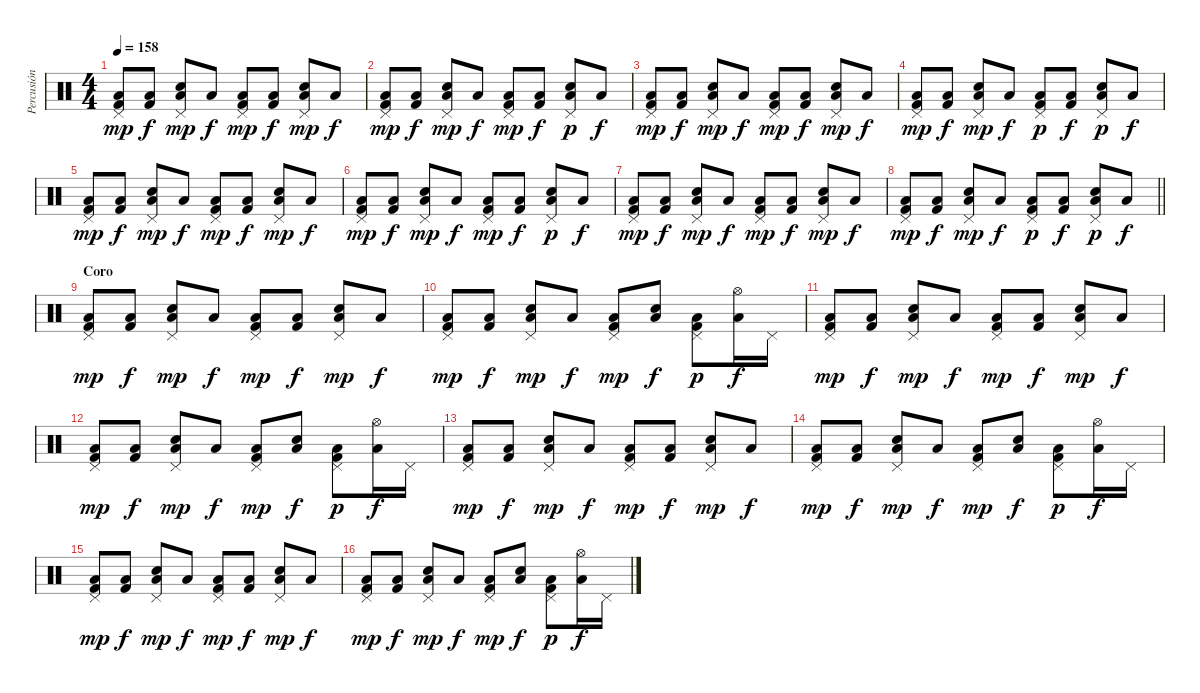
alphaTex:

\track ("Percusión" "Percusión") {instrument percussion}
\staff {score}
\articulation defaults
\ts (4 4)
\tempo 158
\clef neutral
\ks c
("Pedal Hi-Hat (hit)" "Low Floor Tom (hit)" "Kick (hit) 2").8{dy mp} ("Low Floor Tom (hit)" "Kick (hit) 2").8{dy f} ("Pedal Hi-Hat (hit)" "Low Floor Tom (hit)" "Electric Snare (hit)").8{dy mp} "Low Floor Tom (hit)".8{dy f} ("Pedal Hi-Hat (hit)" "Low Floor Tom (hit)" "Kick (hit) 2").8{dy mp} ("Low Floor Tom (hit)" "Kick (hit) 2").8{dy f} ("Pedal Hi-Hat (hit)" "Low Floor Tom (hit)" "Electric Snare (hit)").8{dy mp} "Low Floor Tom (hit)".8{dy f} |
("Pedal Hi-Hat (hit)" "Low Floor Tom (hit)" "Kick (hit) 2").8{dy mp} ("Low Floor Tom (hit)" "Kick (hit) 2").8{dy f} ("Pedal Hi-Hat (hit)" "Low Floor Tom (hit)" "Electric Snare (hit)").8{dy mp} "Low Floor Tom (hit)".8{dy f} ("Pedal Hi-Hat (hit)" "Low Floor Tom (hit)" "Kick (hit) 2").8{dy mp} ("Low Floor Tom (hit)" "Kick (hit) 2").8{dy f} ("Pedal Hi-Hat (hit)" "Low Floor Tom (hit)" "Electric Snare (hit)").8{dy p} "Low Floor Tom (hit)".8{dy f} |
("Pedal Hi-Hat (hit)" "Low Floor Tom (hit)" "Kick (hit) 2").8{dy mp} ("Low Floor Tom (hit)" "Kick (hit) 2").8{dy f} ("Pedal Hi-Hat (hit)" "Low Floor Tom (hit)" "Electric Snare (hit)").8{dy mp} "Low Floor Tom (hit)".8{dy f} ("Pedal Hi-Hat (hit)" "Low Floor Tom (hit)" "Kick (hit) 2").8{dy mp} ("Low Floor Tom (hit)" "Kick (hit) 2").8{dy f} ("Pedal Hi-Hat (hit)" "Low Floor Tom (hit)" "Electric Snare (hit)").8{dy mp} "Low Floor Tom (hit)".8{dy f} |
("Pedal Hi-Hat (hit)" "Low Floor Tom (hit)" "Kick (hit) 2").8{dy mp} ("Low Floor Tom (hit)" "Kick (hit) 2").8{dy f} ("Pedal Hi-Hat (hit)" "Low Floor Tom (hit)" "Electric Snare (hit)").8{dy mp} "Low Floor Tom (hit)".8{dy f} ("Pedal Hi-Hat (hit)" "Low Floor Tom (hit)" "Kick (hit) 2").8{dy p} ("Low Floor Tom (hit)" "Kick (hit) 2").8{dy f} ("Pedal Hi-Hat (hit)" "Low Floor Tom (hit)" "Electric Snare (hit)").8{dy p} "Low Floor Tom (hit)".8{dy f} |
("Pedal Hi-Hat (hit)" "Low Floor Tom (hit)" "Kick (hit) 2").8{dy mp} ("Low Floor Tom (hit)" "Kick (hit) 2").8{dy f} ("Pedal Hi-Hat (hit)" "Low Floor Tom (hit)" "Electric Snare (hit)").8{dy mp} "Low Floor Tom (hit)".8{dy f} ("Pedal Hi-Hat (hit)" "Low Floor Tom (hit)" "Kick (hit) 2").8{dy mp} ("Low Floor Tom (hit)" "Kick (hit) 2").8{dy f} ("Pedal Hi-Hat (hit)" "Low Floor Tom (hit)" "Electric Snare (hit)").8{dy mp} "Low Floor Tom (hit)".8{dy f} |
("Pedal Hi-Hat (hit)" "Low Floor Tom (hit)" "Kick (hit) 2").8{dy mp} ("Low Floor Tom (hit)" "Kick (hit) 2").8{dy f} ("Pedal Hi-Hat (hit)" "Low Floor Tom (hit)" "Electric Snare (hit)").8{dy mp} "Low Floor Tom (hit)".8{dy f} ("Pedal Hi-Hat (hit)" "Low Floor Tom (hit)" "Kick (hit) 2").8{dy mp} ("Low Floor Tom (hit)" "Kick (hit) 2").8{dy f} ("Pedal Hi-Hat (hit)" "Low Floor Tom (hit)" "Electric Snare (hit)").8{dy p} "Low Floor Tom (hit)".8{dy f} |
("Pedal Hi-Hat (hit)" "Low Floor Tom (hit)" "Kick (hit) 2").8{dy mp} ("Low Floor Tom (hit)" "Kick (hit) 2").8{dy f} ("Pedal Hi-Hat (hit)" "Low Floor Tom (hit)" "Electric Snare (hit)").8{dy mp} "Low Floor Tom (hit)".8{dy f} ("Pedal Hi-Hat (hit)" "Low Floor Tom (hit)" "Kick (hit) 2").8{dy mp} ("Low Floor Tom (hit)" "Kick (hit) 2").8{dy f} ("Pedal Hi-Hat (hit)" "Low Floor Tom (hit)" "Electric Snare (hit)").8{dy mp} "Low Floor Tom (hit)".8{dy f} |
\barLineRight lightlight
("Pedal Hi-Hat (hit)" "Low Floor Tom (hit)" "Kick (hit) 2").8{dy mp} ("Low Floor Tom (hit)" "Kick (hit) 2").8{dy f} ("Pedal Hi-Hat (hit)" "Low Floor Tom (hit)" "Electric Snare (hit)").8{dy mp} "Low Floor Tom (hit)".8{dy f} ("Pedal Hi-Hat (hit)" "Low Floor Tom (hit)" "Kick (hit) 2").8{dy p} ("Low Floor Tom (hit)" "Kick (hit) 2").8{dy f} ("Pedal Hi-Hat (hit)" "Low Floor Tom (hit)" "Electric Snare (hit)").8{dy p} "Low Floor Tom (hit)".8{dy f} |
\section ("" "Coro")
("Pedal Hi-Hat (hit)" "Low Floor Tom (hit)" "Kick (hit) 2").8{dy mp} ("Low Floor Tom (hit)" "Kick (hit) 2").8{dy f} ("Pedal Hi-Hat (hit)" "Low Floor Tom (hit)" "Electric Snare (hit)").8{dy mp} "Low Floor Tom (hit)".8{dy f} ("Pedal Hi-Hat (hit)" "Low Floor Tom (hit)" "Kick (hit) 2").8{dy mp} ("Low Floor Tom (hit)" "Kick (hit) 2").8{dy f} ("Pedal Hi-Hat (hit)" "Low Floor Tom (hit)" "Electric Snare (hit)").8{dy mp} "Low Floor Tom (hit)".8{dy f} |
("Pedal Hi-Hat (hit)" "Low Floor Tom (hit)" "Kick (hit) 2").8{dy mp} ("Low Floor Tom (hit)" "Kick (hit) 2").8{dy f} ("Pedal Hi-Hat (hit)" "Low Floor Tom (hit)" "Electric Snare (hit)").8{dy mp} "Low Floor Tom (hit)".8{dy f} ("Pedal Hi-Hat (hit)" "Low Floor Tom (hit)" "Kick (hit) 2").8{dy mp} ("Low Floor Tom (hit)" "Electric Snare (hit)").8{dy f} ("Pedal Hi-Hat (hit)" "Low Floor Tom (hit)" "Kick (hit) 2").8{dy p} ("Hi-Hat (open)" "Low Floor Tom (hit)").16{dy f} "Pedal Hi-Hat (hit)".16 |
("Pedal Hi-Hat (hit)" "Low Floor Tom (hit)" "Kick (hit) 2").8{dy mp} ("Low Floor Tom (hit)" "Kick (hit) 2").8{dy f} ("Pedal Hi-Hat (hit)" "Low Floor Tom (hit)" "Electric Snare (hit)").8{dy mp} "Low Floor Tom (hit)".8{dy f} ("Pedal Hi-Hat (hit)" "Low Floor Tom (hit)" "Kick (hit) 2").8{dy mp} ("Low Floor Tom (hit)" "Kick (hit) 2").8{dy f} ("Pedal Hi-Hat (hit)" "Low Floor Tom (hit)" "Electric Snare (hit)").8{dy mp} "Low Floor Tom (hit)".8{dy f} |
("Pedal Hi-Hat (hit)" "Low Floor Tom (hit)" "Kick (hit) 2").8{dy mp} ("Low Floor Tom (hit)" "Kick (hit) 2").8{dy f} ("Pedal Hi-Hat (hit)" "Low Floor Tom (hit)" "Electric Snare (hit)").8{dy mp} "Low Floor Tom (hit)".8{dy f} ("Pedal Hi-Hat (hit)" "Low Floor Tom (hit)" "Kick (hit) 2").8{dy mp} ("Low Floor Tom (hit)" "Electric Snare (hit)").8{dy f} ("Pedal Hi-Hat (hit)" "Low Floor Tom (hit)" "Kick (hit) 2").8{dy p} ("Hi-Hat (open)" "Low Floor Tom (hit)").16{dy f} "Pedal Hi-Hat (hit)".16 |
("Pedal Hi-Hat (hit)" "Low Floor Tom (hit)" "Kick (hit) 2").8{dy mp} ("Low Floor Tom (hit)" "Kick (hit) 2").8{dy f} ("Pedal Hi-Hat (hit)" "Low Floor Tom (hit)" "Electric Snare (hit)").8{dy mp} "Low Floor Tom (hit)".8{dy f} ("Pedal Hi-Hat (hit)" "Low Floor Tom (hit)" "Kick (hit) 2").8{dy mp} ("Low Floor Tom (hit)" "Kick (hit) 2").8{dy f} ("Pedal Hi-Hat (hit)" "Low Floor Tom (hit)" "Electric Snare (hit)").8{dy mp} "Low Floor Tom (hit)".8{dy f} |
("Pedal Hi-Hat (hit)" "Low Floor Tom (hit)" "Kick (hit) 2").8{dy mp} ("Low Floor Tom (hit)" "Kick (hit) 2").8{dy f} ("Pedal Hi-Hat (hit)" "Low Floor Tom (hit)" "Electric Snare (hit)").8{dy mp} "Low Floor Tom (hit)".8{dy f} ("Pedal Hi-Hat (hit)" "Low Floor Tom (hit)" "Kick (hit) 2").8{dy mp} ("Low Floor Tom (hit)" "Electric Snare (hit)").8{dy f} ("Pedal Hi-Hat (hit)" "Low Floor Tom (hit)" "Kick (hit) 2").8{dy p} ("Hi-Hat (open)" "Low Floor Tom (hit)").16{dy f} "Pedal Hi-Hat (hit)".16 |
("Pedal Hi-Hat (hit)" "Low Floor Tom (hit)" "Kick (hit) 2").8{dy mp} ("Low Floor Tom (hit)" "Kick (hit) 2").8{dy f} ("Pedal Hi-Hat (hit)" "Low Floor Tom (hit)" "Electric Snare (hit)").8{dy mp} "Low Floor Tom (hit)".8{dy f} ("Pedal Hi-Hat (hit)" "Low Floor Tom (hit)" "Kick (hit) 2").8{dy mp} ("Low Floor Tom (hit)" "Kick (hit) 2").8{dy f} ("Pedal Hi-Hat (hit)" "Low Floor Tom (hit)" "Electric Snare (hit)").8{dy mp} "Low Floor Tom (hit)".8{dy f} |
("Pedal Hi-Hat (hit)" "Low Floor Tom (hit)" "Kick (hit) 2").8{dy mp} ("Low Floor Tom (hit)" "Kick (hit) 2").8{dy f} ("Pedal Hi-Hat (hit)" "Low Floor Tom (hit)" "Electric Snare (hit)").8{dy mp} "Low Floor Tom (hit)".8{dy f} ("Pedal Hi-Hat (hit)" "Low Floor Tom (hit)" "Kick (hit) 2").8{dy mp} ("Low Floor Tom (hit)" "Electric Snare (hit)").8{dy f} ("Pedal Hi-Hat (hit)" "Low Floor Tom (hit)" "Kick (hit) 2").8{dy p} ("Hi-Hat (open)" "Low Floor Tom (hit)").16{dy f} "Pedal Hi-Hat (hit)".16
